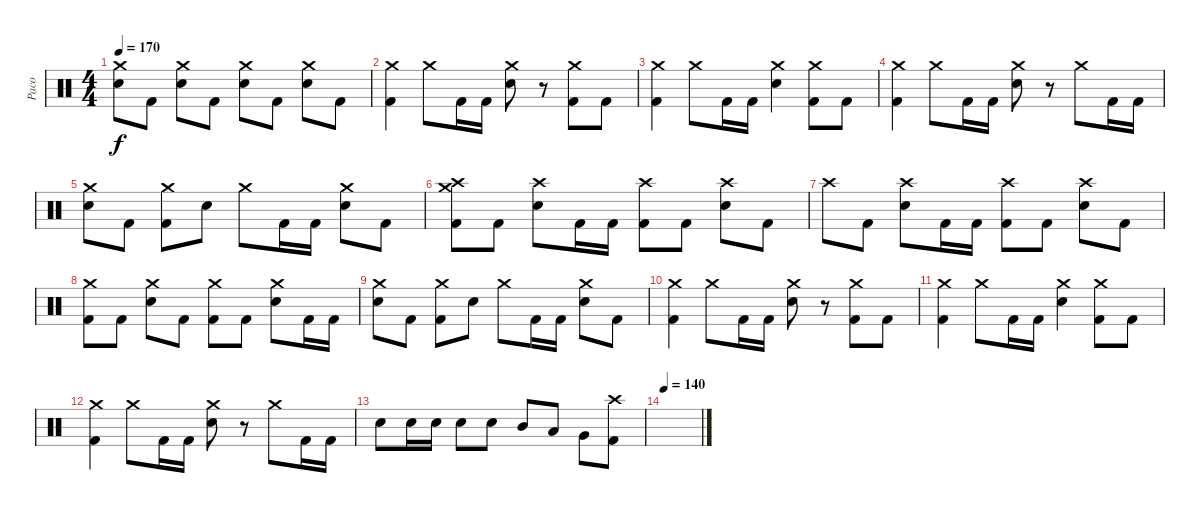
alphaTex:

\track ("Paco" "Paco") {instrument percussion}
\staff {score}
\articulation defaults
\ts (4 4)
\tempo 170
\clef neutral
\ks c
("Crash medium (hit)" "Electric Snare (hit)").8{dy f} "Kick (hit) 2".8 ("Crash medium (hit)" "Electric Snare (hit)").8 "Kick (hit) 2".8 ("Crash medium (hit)" "Electric Snare (hit)").8 "Kick (hit) 2".8 ("Crash medium (hit)" "Electric Snare (hit)").8 "Kick (hit) 2".8 |
("Crash medium (hit)" "Kick (hit) 2").4 "Crash medium (hit)".8 "Kick (hit) 2".16 "Kick (hit) 2".16 ("Crash medium (hit)" "Electric Snare (hit)").8 r.8 ("Crash medium (hit)" "Kick (hit) 2").8 "Kick (hit) 2".8 |
("Crash medium (hit)" "Kick (hit) 2").4 "Crash medium (hit)".8 "Kick (hit) 2".16 "Kick (hit) 2".16 ("Crash medium (hit)" "Electric Snare (hit)").4 ("Crash medium (hit)" "Kick (hit) 2").8 "Kick (hit) 2".8 |
("Crash medium (hit)" "Kick (hit) 2").4 "Crash medium (hit)".8 "Kick (hit) 2".16 "Kick (hit) 2".16 ("Crash medium (hit)" "Electric Snare (hit)").8 r.8 "Crash medium (hit)".8 "Kick (hit) 2".16 "Kick (hit) 2".16 |
("Crash medium (hit)" "Electric Snare (hit)").8 "Kick (hit) 2".8 ("Crash medium (hit)" "Kick (hit) 2").8 "Electric Snare (hit)".8 "Crash medium (hit)".8 "Kick (hit) 2".16 "Kick (hit) 2".16 ("Crash medium (hit)" "Electric Snare (hit)").8 "Kick (hit) 2".8 |
("Crash medium (hit)" "Crash high (hit)" "Kick (hit) 2").8 "Kick (hit) 2".8 ("Crash high (hit)" "Electric Snare (hit)").8 "Kick (hit) 2".16 "Kick (hit) 2".16 ("Crash high (hit)" "Kick (hit) 2").8 "Kick (hit) 2".8 ("Crash high (hit)" "Electric Snare (hit)").8 "Kick (hit) 2".8 |
"Crash high (hit)".8 "Kick (hit) 2".8 ("Crash high (hit)" "Electric Snare (hit)").8 "Kick (hit) 2".16 "Kick (hit) 2".16 ("Crash high (hit)" "Kick (hit) 2").8 "Kick (hit) 2".8 ("Crash high (hit)" "Electric Snare (hit)").8 "Kick (hit) 2".8 |
("Crash medium (hit)" "Kick (hit) 2").8 "Kick (hit) 2".8 ("Crash medium (hit)" "Electric Snare (hit)").8 "Kick (hit) 2".8 ("Crash medium (hit)" "Kick (hit) 2").8 "Kick (hit) 2".8 ("Crash medium (hit)" "Electric Snare (hit)").8 "Kick (hit) 2".16 "Kick (hit) 2".16 |
("Crash medium (hit)" "Electric Snare (hit)").8 "Kick (hit) 2".8 ("Crash medium (hit)" "Kick (hit) 2").8 "Electric Snare (hit)".8 "Crash medium (hit)".8 "Kick (hit) 2".16 "Kick (hit) 2".16 ("Crash medium (hit)" "Electric Snare (hit)").8 "Kick (hit) 2".8 |
("Crash medium (hit)" "Kick (hit) 2").4 "Crash medium (hit)".8 "Kick (hit) 2".16 "Kick (hit) 2".16 ("Crash medium (hit)" "Electric Snare (hit)").8 r.8 ("Crash medium (hit)" "Kick (hit) 2").8 "Kick (hit) 2".8 |
("Crash medium (hit)" "Kick (hit) 2").4 "Crash medium (hit)".8 "Kick (hit) 2".16 "Kick (hit) 2".16 ("Crash medium (hit)" "Electric Snare (hit)").4 ("Crash medium (hit)" "Kick (hit) 2").8 "Kick (hit) 2".8 |
("Crash medium (hit)" "Kick (hit) 2").4 "Crash medium (hit)".8 "Kick (hit) 2".16 "Kick (hit) 2".16 ("Crash medium (hit)" "Electric Snare (hit)").8 r.8 "Crash medium (hit)".8 "Kick (hit) 2".16 "Kick (hit) 2".16 |
"Electric Snare (hit)".8 "Electric Snare (hit)".16 "Electric Snare (hit)".16 "Electric Snare (hit)".8 "Electric Snare (hit)".8 "Mid Tom (hit)".8 "Low Tom (hit)".8 "Very Low Tom (hit)".8 ("Crash high (hit)" "Kick (hit) 2").8 |
\tempo 140
